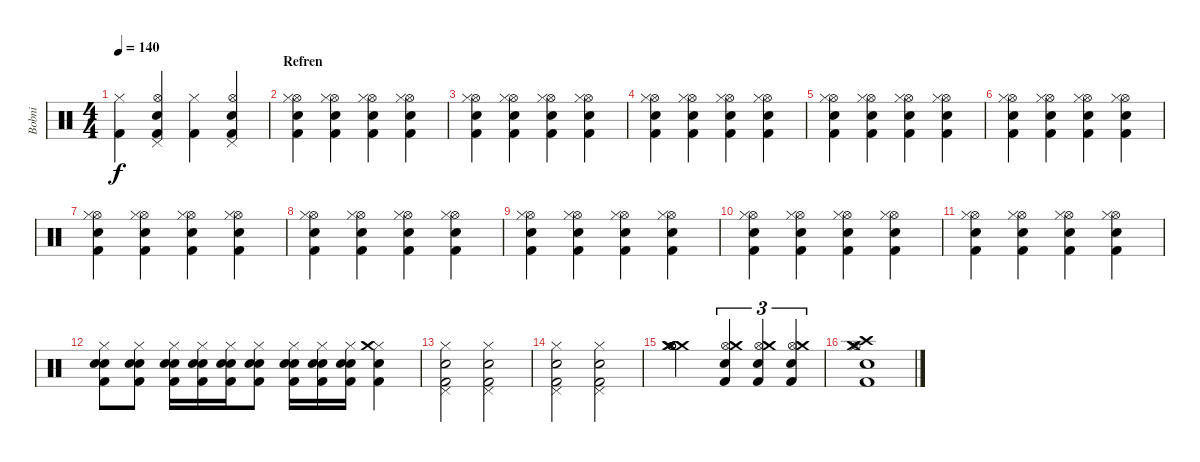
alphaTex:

\track ("Bobni" "Bobni") {instrument percussion}
\staff {score}
\articulation defaults
\ts (4 4)
\tempo 140
\clef neutral
\ks c
("Hi-Hat (closed)" "Kick (hit) 2").4{dy f} ("Hi-Hat (open)" "Snare (hit) 2" "Pedal Hi-Hat (hit)" "Kick (hit) 2").4 ("Hi-Hat (closed)" "Kick (hit) 2").4 ("Hi-Hat (open)" "Snare (hit) 2" "Pedal Hi-Hat (hit)" "Kick (hit) 2").4 |
\section ("" "Refren")
("Hi-Hat (open)" "Snare (hit) 2" "Hi-Hat (closed)" "Kick (hit) 2").4 ("Hi-Hat (open)" "Snare (hit) 2" "Hi-Hat (closed)" "Kick (hit) 2").4 ("Hi-Hat (open)" "Snare (hit) 2" "Hi-Hat (closed)" "Kick (hit) 2").4 ("Hi-Hat (open)" "Snare (hit) 2" "Hi-Hat (closed)" "Kick (hit) 2").4 |
("Hi-Hat (open)" "Snare (hit) 2" "Hi-Hat (closed)" "Kick (hit) 2").4 ("Hi-Hat (open)" "Snare (hit) 2" "Hi-Hat (closed)" "Kick (hit) 2").4 ("Hi-Hat (open)" "Snare (hit) 2" "Hi-Hat (closed)" "Kick (hit) 2").4 ("Hi-Hat (open)" "Snare (hit) 2" "Hi-Hat (closed)" "Kick (hit) 2").4 |
("Hi-Hat (open)" "Snare (hit) 2" "Hi-Hat (closed)" "Kick (hit) 2").4 ("Hi-Hat (open)" "Snare (hit) 2" "Hi-Hat (closed)" "Kick (hit) 2").4 ("Hi-Hat (open)" "Snare (hit) 2" "Hi-Hat (closed)" "Kick (hit) 2").4 ("Hi-Hat (open)" "Snare (hit) 2" "Hi-Hat (closed)" "Kick (hit) 2").4 |
("Hi-Hat (open)" "Snare (hit) 2" "Hi-Hat (closed)" "Kick (hit) 2").4 ("Hi-Hat (open)" "Snare (hit) 2" "Hi-Hat (closed)" "Kick (hit) 2").4 ("Hi-Hat (open)" "Snare (hit) 2" "Hi-Hat (closed)" "Kick (hit) 2").4 ("Hi-Hat (open)" "Snare (hit) 2" "Hi-Hat (closed)" "Kick (hit) 2").4 |
("Hi-Hat (open)" "Snare (hit) 2" "Hi-Hat (closed)" "Kick (hit) 2").4 ("Hi-Hat (open)" "Snare (hit) 2" "Hi-Hat (closed)" "Kick (hit) 2").4 ("Hi-Hat (open)" "Snare (hit) 2" "Hi-Hat (closed)" "Kick (hit) 2").4 ("Hi-Hat (open)" "Snare (hit) 2" "Hi-Hat (closed)" "Kick (hit) 2").4 |
("Hi-Hat (open)" "Snare (hit) 2" "Hi-Hat (closed)" "Kick (hit) 2").4 ("Hi-Hat (open)" "Snare (hit) 2" "Hi-Hat (closed)" "Kick (hit) 2").4 ("Hi-Hat (open)" "Snare (hit) 2" "Hi-Hat (closed)" "Kick (hit) 2").4 ("Hi-Hat (open)" "Snare (hit) 2" "Hi-Hat (closed)" "Kick (hit) 2").4 |
("Hi-Hat (open)" "Snare (hit) 2" "Hi-Hat (closed)" "Kick (hit) 2").4 ("Hi-Hat (open)" "Snare (hit) 2" "Hi-Hat (closed)" "Kick (hit) 2").4 ("Hi-Hat (open)" "Snare (hit) 2" "Hi-Hat (closed)" "Kick (hit) 2").4 ("Hi-Hat (open)" "Snare (hit) 2" "Hi-Hat (closed)" "Kick (hit) 2").4 |
("Hi-Hat (open)" "Snare (hit) 2" "Hi-Hat (closed)" "Kick (hit) 2").4 ("Hi-Hat (open)" "Snare (hit) 2" "Hi-Hat (closed)" "Kick (hit) 2").4 ("Hi-Hat (open)" "Snare (hit) 2" "Hi-Hat (closed)" "Kick (hit) 2").4 ("Hi-Hat (open)" "Snare (hit) 2" "Hi-Hat (closed)" "Kick (hit) 2").4 |
("Hi-Hat (open)" "Snare (hit) 2" "Hi-Hat (closed)" "Kick (hit) 2").4 ("Hi-Hat (open)" "Snare (hit) 2" "Hi-Hat (closed)" "Kick (hit) 2").4 ("Hi-Hat (open)" "Snare (hit) 2" "Hi-Hat (closed)" "Kick (hit) 2").4 ("Hi-Hat (open)" "Snare (hit) 2" "Hi-Hat (closed)" "Kick (hit) 2").4 |
("Hi-Hat (open)" "Snare (hit) 2" "Hi-Hat (closed)" "Kick (hit) 2").4 ("Hi-Hat (open)" "Snare (hit) 2" "Hi-Hat (closed)" "Kick (hit) 2").4 ("Hi-Hat (open)" "Snare (hit) 2" "Hi-Hat (closed)" "Kick (hit) 2").4 ("Hi-Hat (open)" "Snare (hit) 2" "Hi-Hat (closed)" "Kick (hit) 2").4 |
("Hi-Hat (closed)" "Snare (hit) 2" "Snare (hit) 2" "Kick (hit) 2").8 ("Hi-Hat (closed)" "Snare (hit) 2" "Snare (hit) 2" "Kick (hit) 2").8 ("Hi-Hat (closed)" "Snare (hit) 2" "Snare (hit) 2" "Kick (hit) 2").16 ("Hi-Hat (closed)" "Snare (hit) 2" "Snare (hit) 2" "Kick (hit) 2").16 ("Hi-Hat (closed)" "Snare (hit) 2" "Snare (hit) 2" "Kick (hit) 2").16 ("Hi-Hat (closed)" "Snare (hit) 2" "Snare (hit) 2" "Kick (hit) 2").8 ("Hi-Hat (closed)" "Snare (hit) 2" "Snare (hit) 2" "Kick (hit) 2").16 ("Hi-Hat (closed)" "Snare (hit) 2" "Snare (hit) 2" "Kick (hit) 2").16 ("Hi-Hat (closed)" "Snare (hit) 2" "Snare (hit) 2" "Kick (hit) 2").16 ("Hi-Hat (closed)" "Snare (hit) 2" "Crash medium (hit)" "Kick (hit) 2").4 |
("Hi-Hat (closed)" "Snare (hit) 2" "Pedal Hi-Hat (hit)" "Kick (hit) 2").2 ("Hi-Hat (closed)" "Snare (hit) 2" "Pedal Hi-Hat (hit)" "Kick (hit) 2").2 |
("Hi-Hat (closed)" "Snare (hit) 2" "Pedal Hi-Hat (hit)" "Kick (hit) 2").2 ("Hi-Hat (closed)" "Snare (hit) 2" "Pedal Hi-Hat (hit)" "Kick (hit) 2").2 |
("Crash medium (hit)" "Hi-Hat (open)" "Crash medium (hit)" "Hi-Hat (open)" "Crash medium (hit)" "Hi-Hat (open)").2 ("Hi-Hat (open)" "Electric Snare (hit)" "Crash medium (hit)" "Kick (hit) 2").4{tu (3 2)} ("Hi-Hat (open)" "Crash medium (hit)" "Electric Snare (hit)" "Kick (hit) 2").4{tu (3 2)} ("Hi-Hat (open)" "Electric Snare (hit)" "Crash medium (hit)" "Kick (hit) 2").4{tu (3 2)} |
("Hi-Hat (closed)" "Electric Snare (hit)" "Crash medium (hit)" "Hi-Hat (open)" "Crash high (hit)" "Kick (hit) 2").1
